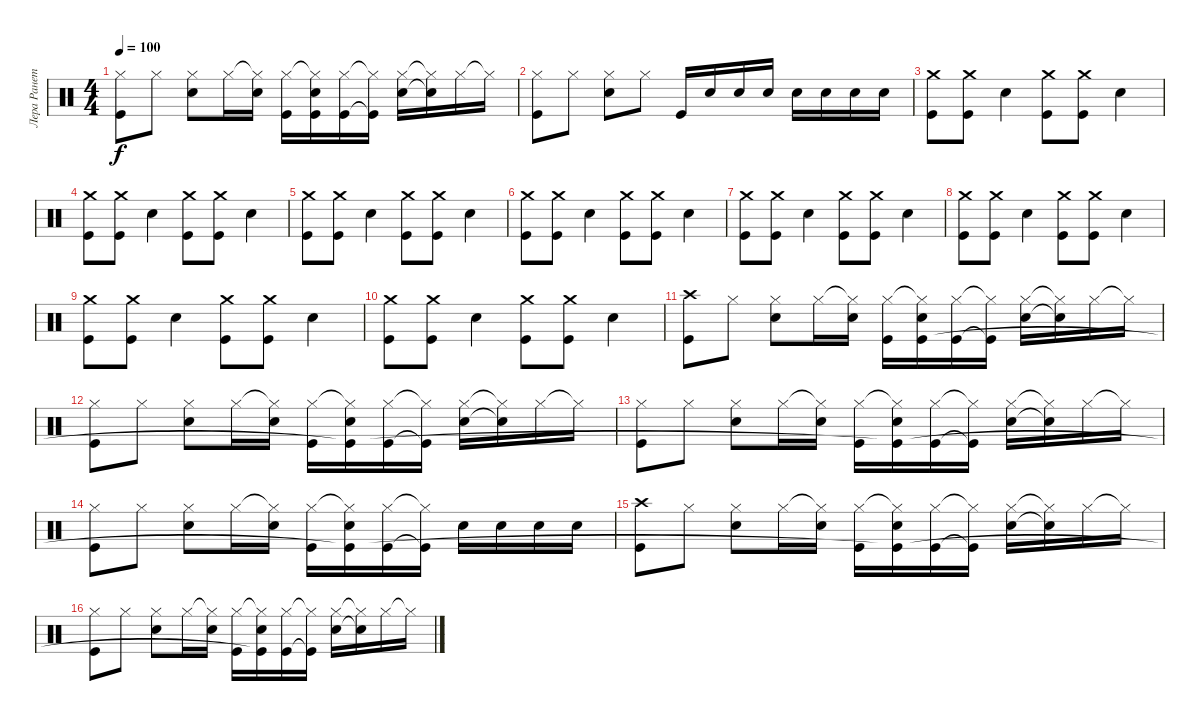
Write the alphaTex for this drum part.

\track ("Лера Ранетка" "Лера Ранет") {instrument percussion}
\staff {score}
\articulation defaults
\ts (4 4)
\tempo 100
\clef neutral
\ks c
("Hi-Hat (closed)" "Kick (hit)").8{dy f} "Hi-Hat (closed)".8 ("Hi-Hat (closed)" "Electric Snare (hit)").8 "Hi-Hat (closed)".16 ("Hi-Hat (closed)"{t} "Electric Snare (hit)").16 ("Hi-Hat (closed)" "Kick (hit)").16 ("Hi-Hat (closed)"{t} "Electric Snare (hit)" "Kick (hit)"{t}).16 ("Hi-Hat (closed)" "Kick (hit)").16 ("Hi-Hat (closed)"{t} "Kick (hit)"{t}).16 ("Hi-Hat (closed)" "Electric Snare (hit)").16 ("Hi-Hat (closed)"{t} "Electric Snare (hit)"{t}).16 "Hi-Hat (closed)".16 "Hi-Hat (closed)"{t}.16 |
("Hi-Hat (closed)" "Kick (hit)").8 "Hi-Hat (closed)".8 ("Hi-Hat (closed)" "Electric Snare (hit)").8 "Hi-Hat (closed)".8 "Kick (hit)".16 "Electric Snare (hit)".16 "Electric Snare (hit)".16 "Electric Snare (hit)".16 "Electric Snare (hit)".16 "Electric Snare (hit)".16 "Electric Snare (hit)".16 "Electric Snare (hit)".16 |
("Crash medium (hit)" "Kick (hit)").8 ("Crash medium (hit)" "Kick (hit)").8 "Electric Snare (hit)".4 ("Crash medium (hit)" "Kick (hit)").8 ("Crash medium (hit)" "Kick (hit)").8 "Electric Snare (hit)".4 |
("Crash medium (hit)" "Kick (hit)").8 ("Crash medium (hit)" "Kick (hit)").8 "Electric Snare (hit)".4 ("Crash medium (hit)" "Kick (hit)").8 ("Crash medium (hit)" "Kick (hit)").8 "Electric Snare (hit)".4 |
("Crash medium (hit)" "Kick (hit)").8 ("Crash medium (hit)" "Kick (hit)").8 "Electric Snare (hit)".4 ("Crash medium (hit)" "Kick (hit)").8 ("Crash medium (hit)" "Kick (hit)").8 "Electric Snare (hit)".4 |
("Crash medium (hit)" "Kick (hit)").8 ("Crash medium (hit)" "Kick (hit)").8 "Electric Snare (hit)".4 ("Crash medium (hit)" "Kick (hit)").8 ("Crash medium (hit)" "Kick (hit)").8 "Electric Snare (hit)".4 |
("Crash medium (hit)" "Kick (hit)").8 ("Crash medium (hit)" "Kick (hit)").8 "Electric Snare (hit)".4 ("Crash medium (hit)" "Kick (hit)").8 ("Crash medium (hit)" "Kick (hit)").8 "Electric Snare (hit)".4 |
("Crash medium (hit)" "Kick (hit)").8 ("Crash medium (hit)" "Kick (hit)").8 "Electric Snare (hit)".4 ("Crash medium (hit)" "Kick (hit)").8 ("Crash medium (hit)" "Kick (hit)").8 "Electric Snare (hit)".4 |
("Crash medium (hit)" "Kick (hit)").8 ("Crash medium (hit)" "Kick (hit)").8 "Electric Snare (hit)".4 ("Crash medium (hit)" "Kick (hit)").8 ("Crash medium (hit)" "Kick (hit)").8 "Electric Snare (hit)".4 |
("Crash medium (hit)" "Kick (hit)").8 ("Crash medium (hit)" "Kick (hit)").8 "Electric Snare (hit)".4 ("Crash medium (hit)" "Kick (hit)").8 ("Crash medium (hit)" "Kick (hit)").8 "Electric Snare (hit)".4 |
("Crash high (hit)" "Kick (hit)").8 "Hi-Hat (closed)".8 ("Hi-Hat (closed)" "Electric Snare (hit)").8 "Hi-Hat (closed)".16 ("Hi-Hat (closed)"{t} "Electric Snare (hit)").16 ("Hi-Hat (closed)" "Kick (hit)").16 ("Hi-Hat (closed)"{t} "Electric Snare (hit)" "Kick (hit)").16 ("Hi-Hat (closed)" "Kick (hit)").16 ("Hi-Hat (closed)"{t} "Kick (hit)"{t}).16 ("Hi-Hat (closed)" "Electric Snare (hit)").16 ("Hi-Hat (closed)"{t} "Electric Snare (hit)"{t}).16 "Hi-Hat (closed)".16 "Hi-Hat (closed)"{t}.16 |
("Hi-Hat (closed)" "Kick (hit)").8 "Hi-Hat (closed)".8 ("Hi-Hat (closed)" "Electric Snare (hit)").8 "Hi-Hat (closed)".16 ("Hi-Hat (closed)"{t} "Electric Snare (hit)").16 ("Hi-Hat (closed)" "Kick (hit)").16 ("Hi-Hat (closed)"{t} "Electric Snare (hit)" "Kick (hit)"{t}).16 ("Hi-Hat (closed)" "Kick (hit)").16 ("Hi-Hat (closed)"{t} "Kick (hit)"{t}).16 ("Hi-Hat (closed)" "Electric Snare (hit)").16 ("Hi-Hat (closed)"{t} "Electric Snare (hit)"{t}).16 "Hi-Hat (closed)".16 "Hi-Hat (closed)"{t}.16 |
("Hi-Hat (closed)" "Kick (hit)").8 "Hi-Hat (closed)".8 ("Hi-Hat (closed)" "Electric Snare (hit)").8 "Hi-Hat (closed)".16 ("Hi-Hat (closed)"{t} "Electric Snare (hit)").16 ("Hi-Hat (closed)" "Kick (hit)").16 ("Hi-Hat (closed)"{t} "Electric Snare (hit)" "Kick (hit)"{t}).16 ("Hi-Hat (closed)" "Kick (hit)").16 ("Hi-Hat (closed)"{t} "Kick (hit)"{t}).16 ("Hi-Hat (closed)" "Electric Snare (hit)").16 ("Hi-Hat (closed)"{t} "Electric Snare (hit)"{t}).16 "Hi-Hat (closed)".16 "Hi-Hat (closed)"{t}.16 |
("Hi-Hat (closed)" "Kick (hit)").8 "Hi-Hat (closed)".8 ("Hi-Hat (closed)" "Electric Snare (hit)").8 "Hi-Hat (closed)".16 ("Hi-Hat (closed)"{t} "Electric Snare (hit)").16 ("Hi-Hat (closed)" "Kick (hit)").16 ("Hi-Hat (closed)"{t} "Electric Snare (hit)" "Kick (hit)"{t}).16 ("Hi-Hat (closed)" "Kick (hit)").16 ("Hi-Hat (closed)"{t} "Kick (hit)"{t}).16 "Electric Snare (hit)".16 "Electric Snare (hit)".16 "Electric Snare (hit)".16 "Electric Snare (hit)".16 |
("Crash high (hit)" "Kick (hit)").8 "Hi-Hat (closed)".8 ("Hi-Hat (closed)" "Electric Snare (hit)").8 "Hi-Hat (closed)".16 ("Hi-Hat (closed)"{t} "Electric Snare (hit)").16 ("Hi-Hat (closed)" "Kick (hit)").16 ("Hi-Hat (closed)"{t} "Electric Snare (hit)" "Kick (hit)"{t}).16 ("Hi-Hat (closed)" "Kick (hit)").16 ("Hi-Hat (closed)"{t} "Kick (hit)"{t}).16 ("Hi-Hat (closed)" "Electric Snare (hit)").16 ("Hi-Hat (closed)"{t} "Electric Snare (hit)"{t}).16 "Hi-Hat (closed)".16 "Hi-Hat (closed)"{t}.16 |
("Hi-Hat (closed)" "Kick (hit)").8 "Hi-Hat (closed)".8 ("Hi-Hat (closed)" "Electric Snare (hit)").8 "Hi-Hat (closed)".16 ("Hi-Hat (closed)"{t} "Electric Snare (hit)").16 ("Hi-Hat (closed)" "Kick (hit)").16 ("Hi-Hat (closed)"{t} "Electric Snare (hit)" "Kick (hit)"{t}).16 ("Hi-Hat (closed)" "Kick (hit)").16 ("Hi-Hat (closed)"{t} "Kick (hit)"{t}).16 ("Hi-Hat (closed)" "Electric Snare (hit)").16 ("Hi-Hat (closed)"{t} "Electric Snare (hit)"{t}).16 "Hi-Hat (closed)".16 "Hi-Hat (closed)"{t}.16
